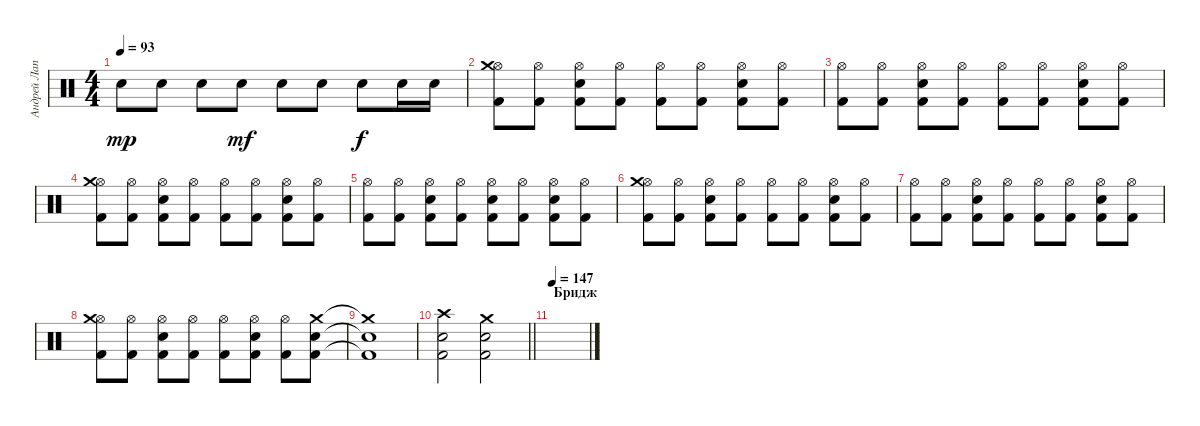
\track ("Андрей Лаптев" "Андрей Лап") {instrument percussion}
\staff {score}
\articulation defaults
\ts (4 4)
\tempo 93
\clef neutral
\ks c "Electric Snare (hit)".8{dy mp} "Electric Snare (hit)".8 "Electric Snare (hit)".8 "Electric Snare (hit)".8{dy mf} "Electric Snare (hit)".8 "Electric Snare (hit)".8 "Electric Snare (hit)".8{dy f} "Electric Snare (hit)".16 "Electric Snare (hit)".16
|
("Hi-Hat (open)" "Kick (hit) 2" "Crash medium (hit)").8 ("Hi-Hat (open)" "Kick (hit) 2").8 ("Hi-Hat (open)" "Kick (hit) 2" "Electric Snare (hit)").8 ("Hi-Hat (open)" "Kick (hit) 2").8 ("Hi-Hat (open)" "Kick (hit) 2").8 ("Hi-Hat (open)" "Kick (hit) 2").8 ("Hi-Hat (open)" "Kick (hit) 2" "Electric Snare (hit)").8 ("Hi-Hat (open)" "Kick (hit) 2").8 |
("Hi-Hat (open)" "Kick (hit) 2").8 ("Hi-Hat (open)" "Kick (hit) 2").8 ("Hi-Hat (open)" "Kick (hit) 2" "Electric Snare (hit)").8 ("Hi-Hat (open)" "Kick (hit) 2").8 ("Hi-Hat (open)" "Kick (hit) 2").8 ("Hi-Hat (open)" "Kick (hit) 2").8 ("Hi-Hat (open)" "Kick (hit) 2" "Electric Snare (hit)").8 ("Hi-Hat (open)" "Kick (hit) 2").8 |
("Hi-Hat (open)" "Kick (hit) 2" "Crash medium (hit)").8 ("Hi-Hat (open)" "Kick (hit) 2").8 ("Hi-Hat (open)" "Kick (hit) 2" "Electric Snare (hit)").8 ("Hi-Hat (open)" "Kick (hit) 2").8 ("Hi-Hat (open)" "Kick (hit) 2").8 ("Hi-Hat (open)" "Kick (hit) 2").8 ("Hi-Hat (open)" "Kick (hit) 2" "Electric Snare (hit)").8 ("Hi-Hat (open)" "Kick (hit) 2").8 |
("Hi-Hat (open)" "Kick (hit) 2").8 ("Hi-Hat (open)" "Kick (hit) 2").8 ("Hi-Hat (open)" "Kick (hit) 2" "Electric Snare (hit)").8 ("Hi-Hat (open)" "Kick (hit) 2").8 ("Hi-Hat (open)" "Kick (hit) 2" "Electric Snare (hit)").8 ("Hi-Hat (open)" "Kick (hit) 2").8 ("Hi-Hat (open)" "Kick (hit) 2" "Electric Snare (hit)").8 ("Hi-Hat (open)" "Kick (hit) 2").8 |
("Hi-Hat (open)" "Kick (hit) 2" "Crash medium (hit)").8 ("Hi-Hat (open)" "Kick (hit) 2").8 ("Hi-Hat (open)" "Kick (hit) 2" "Electric Snare (hit)").8 ("Hi-Hat (open)" "Kick (hit) 2").8 ("Hi-Hat (open)" "Kick (hit) 2").8 ("Hi-Hat (open)" "Kick (hit) 2").8 ("Hi-Hat (open)" "Kick (hit) 2" "Electric Snare (hit)").8 ("Hi-Hat (open)" "Kick (hit) 2").8 |
("Hi-Hat (open)" "Kick (hit) 2").8 ("Hi-Hat (open)" "Kick (hit) 2").8 ("Hi-Hat (open)" "Kick (hit) 2" "Electric Snare (hit)").8 ("Hi-Hat (open)" "Kick (hit) 2").8 ("Hi-Hat (open)" "Kick (hit) 2").8 ("Hi-Hat (open)" "Kick (hit) 2").8 ("Hi-Hat (open)" "Kick (hit) 2" "Electric Snare (hit)").8 ("Hi-Hat (open)" "Kick (hit) 2").8 |
("Hi-Hat (open)" "Kick (hit) 2" "Crash medium (hit)").8 ("Hi-Hat (open)" "Kick (hit) 2").8 ("Hi-Hat (open)" "Kick (hit) 2" "Electric Snare (hit)").8 ("Hi-Hat (open)" "Kick (hit) 2").8 ("Hi-Hat (open)" "Kick (hit) 2").8 ("Hi-Hat (open)" "Kick (hit) 2" "Electric Snare (hit)").8 ("Hi-Hat (open)" "Kick (hit) 2").8 ("Crash medium (hit)" "Kick (hit) 2" "Electric Snare (hit)").8 |
("Crash medium (hit)"{t} "Kick (hit) 2"{t} "Electric Snare (hit)"{t}).1 |
\barLineRight lightlight
("Crash high (hit)" "Kick (hit) 2" "Electric Snare (hit)").2 ("Crash medium (hit)" "Electric Snare (hit)" "Kick (hit) 2").2 |
\section ("" "Бридж")
\tempo 147
